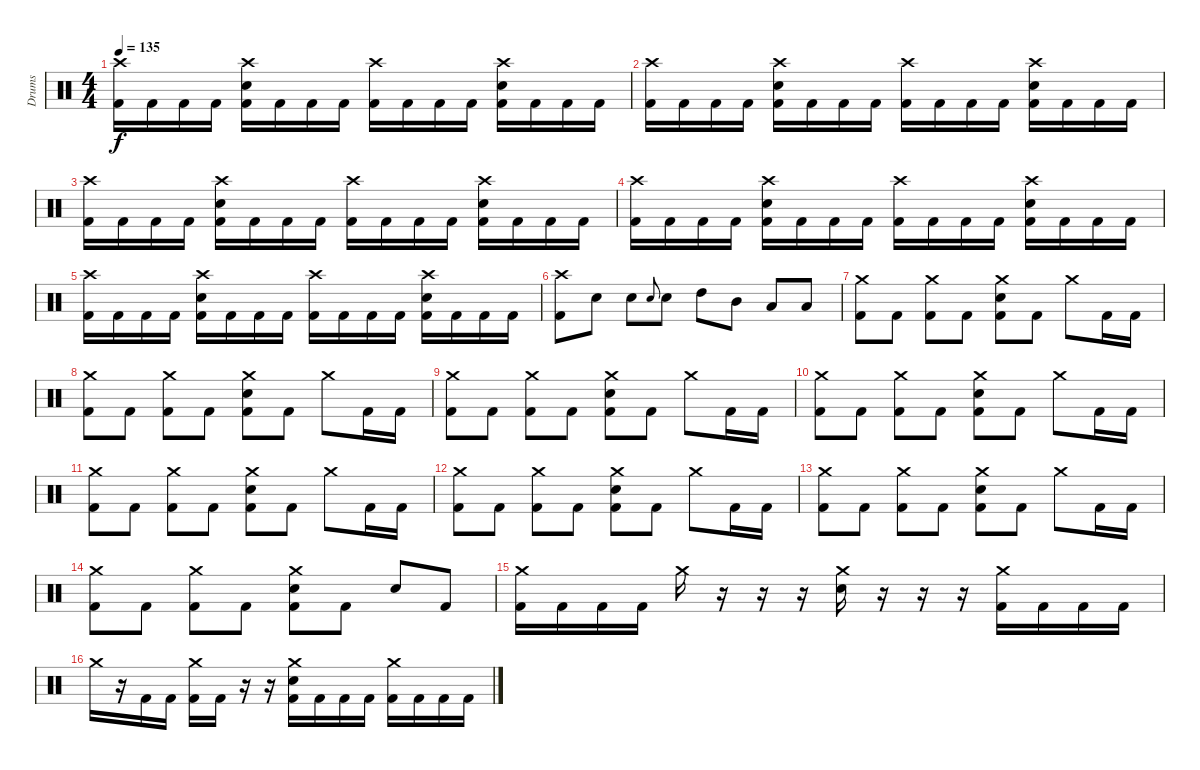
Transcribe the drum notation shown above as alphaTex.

\track ("Drums" "Drums") {instrument percussion}
\staff {score}
\articulation defaults
\ts (4 4)
\tempo 135
\clef neutral
\ks c
("Crash high (hit)" "Kick (hit) 2").16{dy f} "Kick (hit) 2".16 "Kick (hit) 2".16 "Kick (hit) 2".16 ("Crash high (hit)" "Snare (hit) 2" "Kick (hit) 2").16 "Kick (hit) 2".16 "Kick (hit) 2".16 "Kick (hit) 2".16 ("Crash high (hit)" "Kick (hit) 2").16 "Kick (hit) 2".16 "Kick (hit) 2".16 "Kick (hit) 2".16 ("Crash high (hit)" "Snare (hit) 2" "Kick (hit) 2").16 "Kick (hit) 2".16 "Kick (hit) 2".16 "Kick (hit) 2".16 |
("Crash high (hit)" "Kick (hit) 2").16 "Kick (hit) 2".16 "Kick (hit) 2".16 "Kick (hit) 2".16 ("Crash high (hit)" "Snare (hit) 2" "Kick (hit) 2").16 "Kick (hit) 2".16 "Kick (hit) 2".16 "Kick (hit) 2".16 ("Crash high (hit)" "Kick (hit) 2").16 "Kick (hit) 2".16 "Kick (hit) 2".16 "Kick (hit) 2".16 ("Crash high (hit)" "Snare (hit) 2" "Kick (hit) 2").16 "Kick (hit) 2".16 "Kick (hit) 2".16 "Kick (hit) 2".16 |
("Crash high (hit)" "Kick (hit) 2").16 "Kick (hit) 2".16 "Kick (hit) 2".16 "Kick (hit) 2".16 ("Crash high (hit)" "Snare (hit) 2" "Kick (hit) 2").16 "Kick (hit) 2".16 "Kick (hit) 2".16 "Kick (hit) 2".16 ("Crash high (hit)" "Kick (hit) 2").16 "Kick (hit) 2".16 "Kick (hit) 2".16 "Kick (hit) 2".16 ("Crash high (hit)" "Snare (hit) 2" "Kick (hit) 2").16 "Kick (hit) 2".16 "Kick (hit) 2".16 "Kick (hit) 2".16 |
("Crash high (hit)" "Kick (hit) 2").16 "Kick (hit) 2".16 "Kick (hit) 2".16 "Kick (hit) 2".16 ("Crash high (hit)" "Snare (hit) 2" "Kick (hit) 2").16 "Kick (hit) 2".16 "Kick (hit) 2".16 "Kick (hit) 2".16 ("Crash high (hit)" "Kick (hit) 2").16 "Kick (hit) 2".16 "Kick (hit) 2".16 "Kick (hit) 2".16 ("Crash high (hit)" "Snare (hit) 2" "Kick (hit) 2").16 "Kick (hit) 2".16 "Kick (hit) 2".16 "Kick (hit) 2".16 |
("Crash high (hit)" "Kick (hit) 2").16 "Kick (hit) 2".16 "Kick (hit) 2".16 "Kick (hit) 2".16 ("Crash high (hit)" "Snare (hit) 2" "Kick (hit) 2").16 "Kick (hit) 2".16 "Kick (hit) 2".16 "Kick (hit) 2".16 ("Crash high (hit)" "Kick (hit) 2").16 "Kick (hit) 2".16 "Kick (hit) 2".16 "Kick (hit) 2".16 ("Crash high (hit)" "Snare (hit) 2" "Kick (hit) 2").16 "Kick (hit) 2".16 "Kick (hit) 2".16 "Kick (hit) 2".16 |
("Crash high (hit)" "Kick (hit) 2").8 "Snare (hit) 2".8 "Snare (hit) 2".8 "Snare (hit) 2".8{gr onbeat} "Snare (hit) 2".8 "High Tom (hit)".8 "Mid Tom (hit)".8 "Low Tom (hit)".8 "Low Tom (hit)".8 |
("Crash medium (hit)" "Kick (hit) 2").8 "Kick (hit) 2".8 ("Crash medium (hit)" "Kick (hit) 2").8 "Kick (hit) 2".8 ("Crash medium (hit)" "Snare (hit) 2" "Kick (hit) 2").8 "Kick (hit) 2".8 "Crash medium (hit)".8 "Kick (hit) 2".16 "Kick (hit) 2".16 |
("Crash medium (hit)" "Kick (hit) 2").8 "Kick (hit) 2".8 ("Crash medium (hit)" "Kick (hit) 2").8 "Kick (hit) 2".8 ("Crash medium (hit)" "Snare (hit) 2" "Kick (hit) 2").8 "Kick (hit) 2".8 "Crash medium (hit)".8 "Kick (hit) 2".16 "Kick (hit) 2".16 |
("Crash medium (hit)" "Kick (hit) 2").8 "Kick (hit) 2".8 ("Crash medium (hit)" "Kick (hit) 2").8 "Kick (hit) 2".8 ("Crash medium (hit)" "Snare (hit) 2" "Kick (hit) 2").8 "Kick (hit) 2".8 "Crash medium (hit)".8 "Kick (hit) 2".16 "Kick (hit) 2".16 |
("Crash medium (hit)" "Kick (hit) 2").8 "Kick (hit) 2".8 ("Crash medium (hit)" "Kick (hit) 2").8 "Kick (hit) 2".8 ("Crash medium (hit)" "Snare (hit) 2" "Kick (hit) 2").8 "Kick (hit) 2".8 "Crash medium (hit)".8 "Kick (hit) 2".16 "Kick (hit) 2".16 |
("Crash medium (hit)" "Kick (hit) 2").8 "Kick (hit) 2".8 ("Crash medium (hit)" "Kick (hit) 2").8 "Kick (hit) 2".8 ("Crash medium (hit)" "Snare (hit) 2" "Kick (hit) 2").8 "Kick (hit) 2".8 "Crash medium (hit)".8 "Kick (hit) 2".16 "Kick (hit) 2".16 |
("Crash medium (hit)" "Kick (hit) 2").8 "Kick (hit) 2".8 ("Crash medium (hit)" "Kick (hit) 2").8 "Kick (hit) 2".8 ("Crash medium (hit)" "Snare (hit) 2" "Kick (hit) 2").8 "Kick (hit) 2".8 "Crash medium (hit)".8 "Kick (hit) 2".16 "Kick (hit) 2".16 |
("Crash medium (hit)" "Kick (hit) 2").8 "Kick (hit) 2".8 ("Crash medium (hit)" "Kick (hit) 2").8 "Kick (hit) 2".8 ("Crash medium (hit)" "Snare (hit) 2" "Kick (hit) 2").8 "Kick (hit) 2".8 "Crash medium (hit)".8 "Kick (hit) 2".16 "Kick (hit) 2".16 |
("Crash medium (hit)" "Kick (hit) 2").8 "Kick (hit) 2".8 ("Crash medium (hit)" "Kick (hit) 2").8 "Kick (hit) 2".8 ("Crash medium (hit)" "Snare (hit) 2" "Kick (hit) 2").8 "Kick (hit) 2".8 "Snare (hit) 2".8 "Kick (hit) 2".8 |
("Crash medium (hit)" "Kick (hit) 2").16 "Kick (hit) 2".16 "Kick (hit) 2".16 "Kick (hit) 2".16 "Crash medium (hit)".16 r.16 r.16 r.16 ("Crash medium (hit)" "Snare (hit) 2").16 r.16 r.16 r.16 ("Crash medium (hit)" "Kick (hit) 2").16 "Kick (hit) 2".16 "Kick (hit) 2".16 "Kick (hit) 2".16 |
"Crash medium (hit)".16 r.16 "Kick (hit) 2".16 "Kick (hit) 2".16 ("Crash medium (hit)" "Kick (hit) 2").16 "Kick (hit) 2".16 r.16 r.16 ("Crash medium (hit)" "Snare (hit) 2" "Kick (hit) 2").16 "Kick (hit) 2".16 "Kick (hit) 2".16 "Kick (hit) 2".16 ("Crash medium (hit)" "Kick (hit) 2").16 "Kick (hit) 2".16 "Kick (hit) 2".16 "Kick (hit) 2".16
